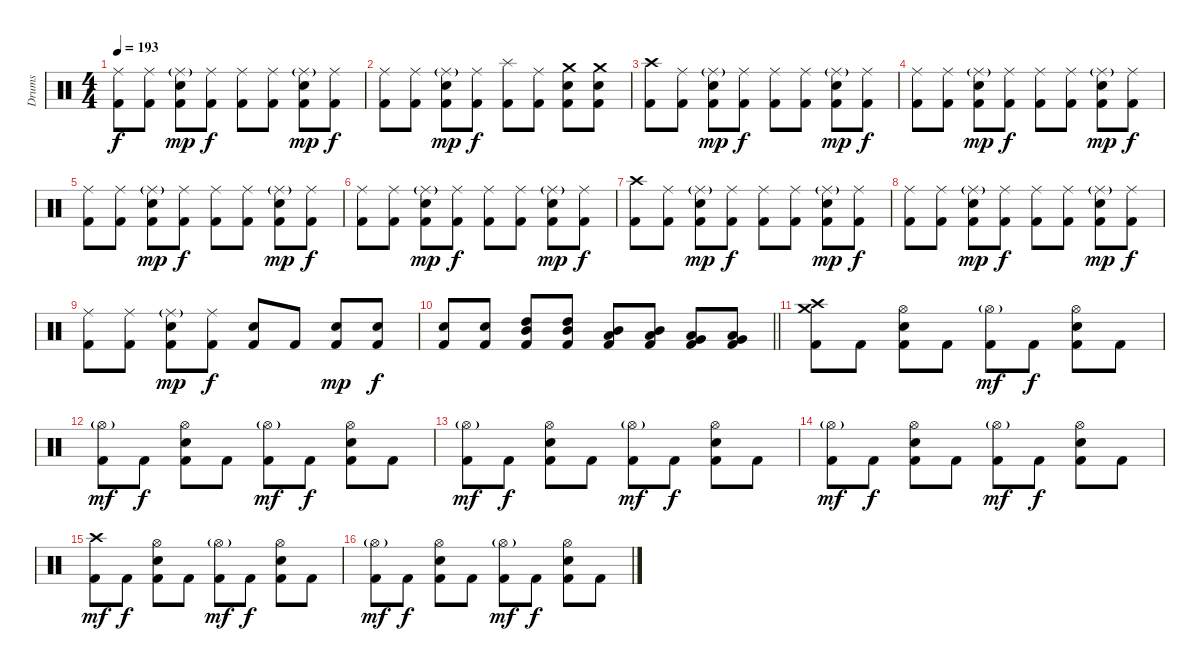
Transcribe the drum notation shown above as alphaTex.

\track ("Drums" "Drums") {instrument percussion}
\staff {score}
\articulation defaults
\ts (4 4)
\tempo 193
\clef neutral
\ks c
("Ride (middle)" "Kick (hit) 2").8{dy f} ("Ride (middle)" "Kick (hit) 2").8 ("Ride (middle)"{g} "Electric Snare (hit)" "Kick (hit) 2").8{dy mp} ("Ride (middle)" "Kick (hit) 2").8{dy f} ("Ride (middle)" "Kick (hit) 2").8 ("Ride (middle)" "Kick (hit) 2").8 ("Ride (middle)"{g} "Electric Snare (hit)" "Kick (hit) 2").8{dy mp} ("Ride (middle)" "Kick (hit) 2").8{dy f} |
("Ride (middle)" "Kick (hit) 2").8 ("Ride (middle)" "Kick (hit) 2").8 ("Ride (middle)"{g} "Electric Snare (hit)" "Kick (hit) 2").8{dy mp} ("Ride (middle)" "Kick (hit) 2").8{dy f} ("Splash (hit)" "Kick (hit) 2").8 ("Ride (middle)" "Kick (hit) 2").8 ("Crash medium (hit)" "Electric Snare (hit)" "Kick (hit) 2").8 ("Crash medium (hit)" "Electric Snare (hit)" "Kick (hit) 2").8 |
("Crash high (hit)" "Kick (hit) 2").8 ("Ride (middle)" "Kick (hit) 2").8 ("Ride (middle)"{g} "Electric Snare (hit)" "Kick (hit) 2").8{dy mp} ("Ride (middle)" "Kick (hit) 2").8{dy f} ("Ride (middle)" "Kick (hit) 2").8 ("Ride (middle)" "Kick (hit) 2").8 ("Ride (middle)"{g} "Electric Snare (hit)" "Kick (hit) 2").8{dy mp} ("Ride (middle)" "Kick (hit) 2").8{dy f} |
("Ride (middle)" "Kick (hit) 2").8 ("Ride (middle)" "Kick (hit) 2").8 ("Ride (middle)"{g} "Electric Snare (hit)" "Kick (hit) 2").8{dy mp} ("Ride (middle)" "Kick (hit) 2").8{dy f} ("Ride (middle)" "Kick (hit) 2").8 ("Ride (middle)" "Kick (hit) 2").8 ("Ride (middle)"{g} "Electric Snare (hit)" "Kick (hit) 2").8{dy mp} ("Ride (middle)" "Kick (hit) 2").8{dy f} |
("Ride (middle)" "Kick (hit) 2").8 ("Ride (middle)" "Kick (hit) 2").8 ("Ride (middle)"{g} "Electric Snare (hit)" "Kick (hit) 2").8{dy mp} ("Ride (middle)" "Kick (hit) 2").8{dy f} ("Ride (middle)" "Kick (hit) 2").8 ("Ride (middle)" "Kick (hit) 2").8 ("Ride (middle)"{g} "Electric Snare (hit)" "Kick (hit) 2").8{dy mp} ("Ride (middle)" "Kick (hit) 2").8{dy f} |
("Ride (middle)" "Kick (hit) 2").8 ("Ride (middle)" "Kick (hit) 2").8 ("Ride (middle)"{g} "Electric Snare (hit)" "Kick (hit) 2").8{dy mp} ("Ride (middle)" "Kick (hit) 2").8{dy f} ("Ride (middle)" "Kick (hit) 2").8 ("Ride (middle)" "Kick (hit) 2").8 ("Ride (middle)"{g} "Electric Snare (hit)" "Kick (hit) 2").8{dy mp} ("Ride (middle)" "Kick (hit) 2").8{dy f} |
("Crash high (hit)" "Kick (hit) 2").8 ("Ride (middle)" "Kick (hit) 2").8 ("Ride (middle)"{g} "Electric Snare (hit)" "Kick (hit) 2").8{dy mp} ("Ride (middle)" "Kick (hit) 2").8{dy f} ("Ride (middle)" "Kick (hit) 2").8 ("Ride (middle)" "Kick (hit) 2").8 ("Ride (middle)"{g} "Electric Snare (hit)" "Kick (hit) 2").8{dy mp} ("Ride (middle)" "Kick (hit) 2").8{dy f} |
("Ride (middle)" "Kick (hit) 2").8 ("Ride (middle)" "Kick (hit) 2").8 ("Ride (middle)"{g} "Electric Snare (hit)" "Kick (hit) 2").8{dy mp} ("Ride (middle)" "Kick (hit) 2").8{dy f} ("Ride (middle)" "Kick (hit) 2").8 ("Ride (middle)" "Kick (hit) 2").8 ("Ride (middle)"{g} "Electric Snare (hit)" "Kick (hit) 2").8{dy mp} ("Ride (middle)" "Kick (hit) 2").8{dy f} |
("Ride (middle)" "Kick (hit) 2").8 ("Ride (middle)" "Kick (hit) 2").8 ("Ride (middle)"{g} "Electric Snare (hit)" "Kick (hit) 2").8{dy mp} ("Ride (middle)" "Kick (hit) 2").8{dy f} ("Electric Snare (hit)" "Kick (hit) 2").8 "Kick (hit) 2".8 ("Electric Snare (hit)" "Kick (hit) 2").8{dy mp} ("Electric Snare (hit)" "Kick (hit) 2").8{dy f} |
\barLineRight lightlight
("Electric Snare (hit)" "Kick (hit) 2").8 ("Electric Snare (hit)" "Kick (hit) 2").8 ("High Tom (hit)" "Mid Tom (hit)" "Kick (hit) 2").8 ("High Tom (hit)" "Mid Tom (hit)" "Kick (hit) 2").8 ("Mid Tom (hit)" "Low Tom (hit)" "Kick (hit) 2").8 ("Mid Tom (hit)" "Low Tom (hit)" "Kick (hit) 2").8 ("Very Low Tom (hit)" "Low Tom (hit)" "Kick (hit) 2").8 ("Very Low Tom (hit)" "Low Tom (hit)" "Kick (hit) 2").8 |
("Crash high (hit)" "Crash medium (hit)" "Kick (hit) 2").8 "Kick (hit) 2".8 ("Hi-Hat (open)" "Electric Snare (hit)" "Kick (hit) 2").8 "Kick (hit) 2".8 ("Hi-Hat (open)"{g} "Kick (hit) 2").8{dy mf} "Kick (hit) 2".8{dy f} ("Hi-Hat (open)" "Electric Snare (hit)" "Kick (hit) 2").8 "Kick (hit) 2".8 |
("Hi-Hat (open)"{g} "Kick (hit) 2").8{dy mf} "Kick (hit) 2".8{dy f} ("Hi-Hat (open)" "Electric Snare (hit)" "Kick (hit) 2").8 "Kick (hit) 2".8 ("Hi-Hat (open)"{g} "Kick (hit) 2").8{dy mf} "Kick (hit) 2".8{dy f} ("Hi-Hat (open)" "Electric Snare (hit)" "Kick (hit) 2").8 "Kick (hit) 2".8 |
("Hi-Hat (open)"{g} "Kick (hit) 2").8{dy mf} "Kick (hit) 2".8{dy f} ("Hi-Hat (open)" "Electric Snare (hit)" "Kick (hit) 2").8 "Kick (hit) 2".8 ("Hi-Hat (open)"{g} "Kick (hit) 2").8{dy mf} "Kick (hit) 2".8{dy f} ("Hi-Hat (open)" "Electric Snare (hit)" "Kick (hit) 2").8 "Kick (hit) 2".8 |
("Hi-Hat (open)"{g} "Kick (hit) 2").8{dy mf} "Kick (hit) 2".8{dy f} ("Hi-Hat (open)" "Electric Snare (hit)" "Kick (hit) 2").8 "Kick (hit) 2".8 ("Hi-Hat (open)"{g} "Kick (hit) 2").8{dy mf} "Kick (hit) 2".8{dy f} ("Hi-Hat (open)" "Electric Snare (hit)" "Kick (hit) 2").8 "Kick (hit) 2".8 |
("Crash high (hit)" "Kick (hit) 2").8{dy mf} "Kick (hit) 2".8{dy f} ("Hi-Hat (open)" "Electric Snare (hit)" "Kick (hit) 2").8 "Kick (hit) 2".8 ("Hi-Hat (open)"{g} "Kick (hit) 2").8{dy mf} "Kick (hit) 2".8{dy f} ("Hi-Hat (open)" "Electric Snare (hit)" "Kick (hit) 2").8 "Kick (hit) 2".8 |
("Hi-Hat (open)"{g} "Kick (hit) 2").8{dy mf} "Kick (hit) 2".8{dy f} ("Hi-Hat (open)" "Electric Snare (hit)" "Kick (hit) 2").8 "Kick (hit) 2".8 ("Hi-Hat (open)"{g} "Kick (hit) 2").8{dy mf} "Kick (hit) 2".8{dy f} ("Hi-Hat (open)" "Electric Snare (hit)" "Kick (hit) 2").8 "Kick (hit) 2".8
